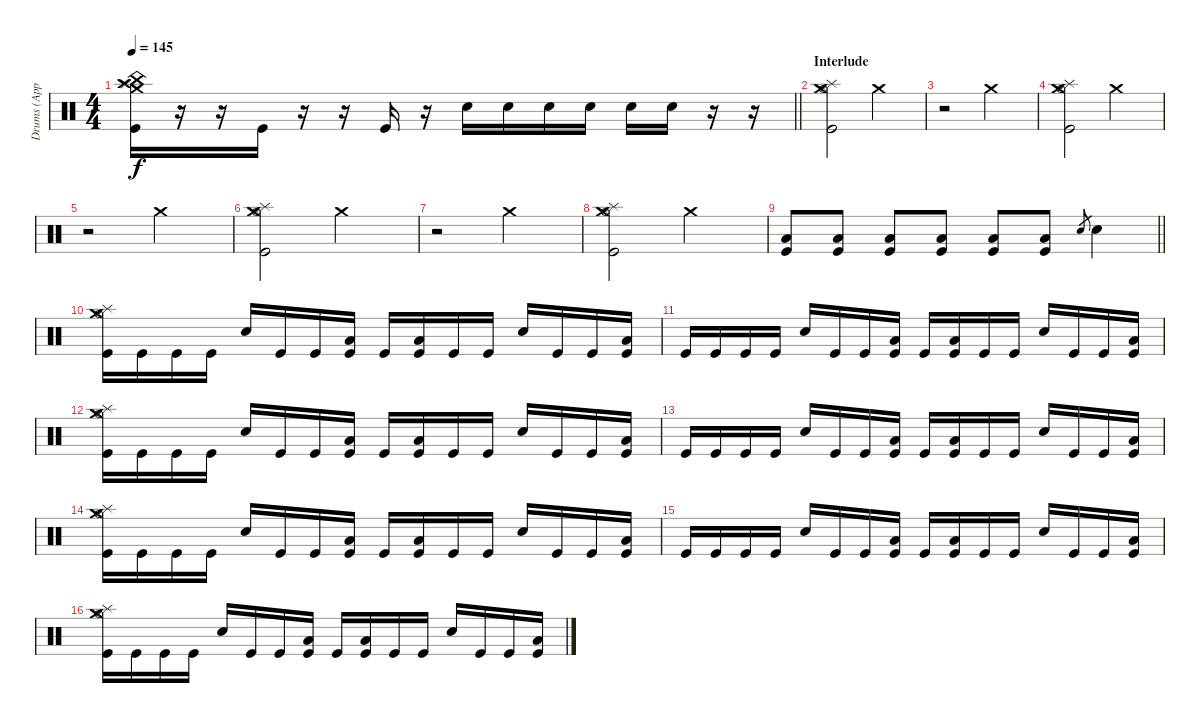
\track ("Drums (Approx.)" "Drums (App") {instrument percussion}
\staff {score}
\articulation defaults
\ts (4 4)
\tempo 145
\clef neutral
\barLineRight lightlight
\ks c
("Crash high (hit)" "Crash medium (hit)" "Splash (hit)" "China (hit)" "Kick (hit)").16{dy f} r.16 r.16 "Kick (hit)".16 r.16 r.16 "Kick (hit)".16 r.16 "Electric Snare (hit)".16 "Electric Snare (hit)".16 "Electric Snare (hit)".16 "Electric Snare (hit)".16 "Electric Snare (hit)".16 "Electric Snare (hit)".16 r.16 r.16 |
\section ("" "Interlude")
("Crash medium (hit)" "Hi-Hat (open)" "Splash (hit)" "Kick (hit)").2 "Crash medium (hit)".2 |
r.2 "Crash medium (hit)".2 |
("Crash medium (hit)" "Hi-Hat (open)" "Splash (hit)" "Kick (hit)").2 "Crash medium (hit)".2 |
r.2 "Crash medium (hit)".2 |
("Crash medium (hit)" "Hi-Hat (open)" "Splash (hit)" "Kick (hit)").2 "Crash medium (hit)".2 |
r.2 "Crash medium (hit)".2 |
("Crash medium (hit)" "Hi-Hat (open)" "Splash (hit)" "Kick (hit)").2 "Crash medium (hit)".2 |
\barLineRight lightlight
("Low Floor Tom (hit)" "Kick (hit)").8 ("Low Floor Tom (hit)" "Kick (hit)").8 ("Low Floor Tom (hit)" "Kick (hit)").8 ("Low Floor Tom (hit)" "Kick (hit)").8 ("Low Floor Tom (hit)" "Kick (hit)").8 ("Low Floor Tom (hit)" "Kick (hit)").8 "Electric Snare (hit)".8{gr} "Electric Snare (hit)".4 |
\section ("" "")
("Crash medium (hit)" "Hi-Hat (open)" "Splash (hit)" "Kick (hit)").16 "Kick (hit)".16 "Kick (hit)".16 "Kick (hit)".16 "Electric Snare (hit)".16 "Kick (hit)".16 "Kick (hit)".16 ("Low Floor Tom (hit)" "Kick (hit)").16 "Kick (hit)".16 ("Low Floor Tom (hit)" "Kick (hit)").16 "Kick (hit)".16 "Kick (hit)".16 "Electric Snare (hit)".16 "Kick (hit)".16 "Kick (hit)".16 ("Low Floor Tom (hit)" "Kick (hit)").16 |
"Kick (hit)".16 "Kick (hit)".16 "Kick (hit)".16 "Kick (hit)".16 "Electric Snare (hit)".16 "Kick (hit)".16 "Kick (hit)".16 ("Low Floor Tom (hit)" "Kick (hit)").16 "Kick (hit)".16 ("Low Floor Tom (hit)" "Kick (hit)").16 "Kick (hit)".16 "Kick (hit)".16 "Electric Snare (hit)".16 "Kick (hit)".16 "Kick (hit)".16 ("Low Floor Tom (hit)" "Kick (hit)").16 |
("Crash medium (hit)" "Hi-Hat (open)" "Splash (hit)" "Kick (hit)").16 "Kick (hit)".16 "Kick (hit)".16 "Kick (hit)".16 "Electric Snare (hit)".16 "Kick (hit)".16 "Kick (hit)".16 ("Low Floor Tom (hit)" "Kick (hit)").16 "Kick (hit)".16 ("Low Floor Tom (hit)" "Kick (hit)").16 "Kick (hit)".16 "Kick (hit)".16 "Electric Snare (hit)".16 "Kick (hit)".16 "Kick (hit)".16 ("Low Floor Tom (hit)" "Kick (hit)").16 |
"Kick (hit)".16 "Kick (hit)".16 "Kick (hit)".16 "Kick (hit)".16 "Electric Snare (hit)".16 "Kick (hit)".16 "Kick (hit)".16 ("Low Floor Tom (hit)" "Kick (hit)").16 "Kick (hit)".16 ("Low Floor Tom (hit)" "Kick (hit)").16 "Kick (hit)".16 "Kick (hit)".16 "Electric Snare (hit)".16 "Kick (hit)".16 "Kick (hit)".16 ("Low Floor Tom (hit)" "Kick (hit)").16 |
("Crash medium (hit)" "Hi-Hat (open)" "Splash (hit)" "Kick (hit)").16 "Kick (hit)".16 "Kick (hit)".16 "Kick (hit)".16 "Electric Snare (hit)".16 "Kick (hit)".16 "Kick (hit)".16 ("Low Floor Tom (hit)" "Kick (hit)").16 "Kick (hit)".16 ("Low Floor Tom (hit)" "Kick (hit)").16 "Kick (hit)".16 "Kick (hit)".16 "Electric Snare (hit)".16 "Kick (hit)".16 "Kick (hit)".16 ("Low Floor Tom (hit)" "Kick (hit)").16 |
"Kick (hit)".16 "Kick (hit)".16 "Kick (hit)".16 "Kick (hit)".16 "Electric Snare (hit)".16 "Kick (hit)".16 "Kick (hit)".16 ("Low Floor Tom (hit)" "Kick (hit)").16 "Kick (hit)".16 ("Low Floor Tom (hit)" "Kick (hit)").16 "Kick (hit)".16 "Kick (hit)".16 "Electric Snare (hit)".16 "Kick (hit)".16 "Kick (hit)".16 ("Low Floor Tom (hit)" "Kick (hit)").16 |
("Crash medium (hit)" "Hi-Hat (open)" "Splash (hit)" "Kick (hit)").16 "Kick (hit)".16 "Kick (hit)".16 "Kick (hit)".16 "Electric Snare (hit)".16 "Kick (hit)".16 "Kick (hit)".16 ("Low Floor Tom (hit)" "Kick (hit)").16 "Kick (hit)".16 ("Low Floor Tom (hit)" "Kick (hit)").16 "Kick (hit)".16 "Kick (hit)".16 "Electric Snare (hit)".16 "Kick (hit)".16 "Kick (hit)".16 ("Low Floor Tom (hit)" "Kick (hit)").16
